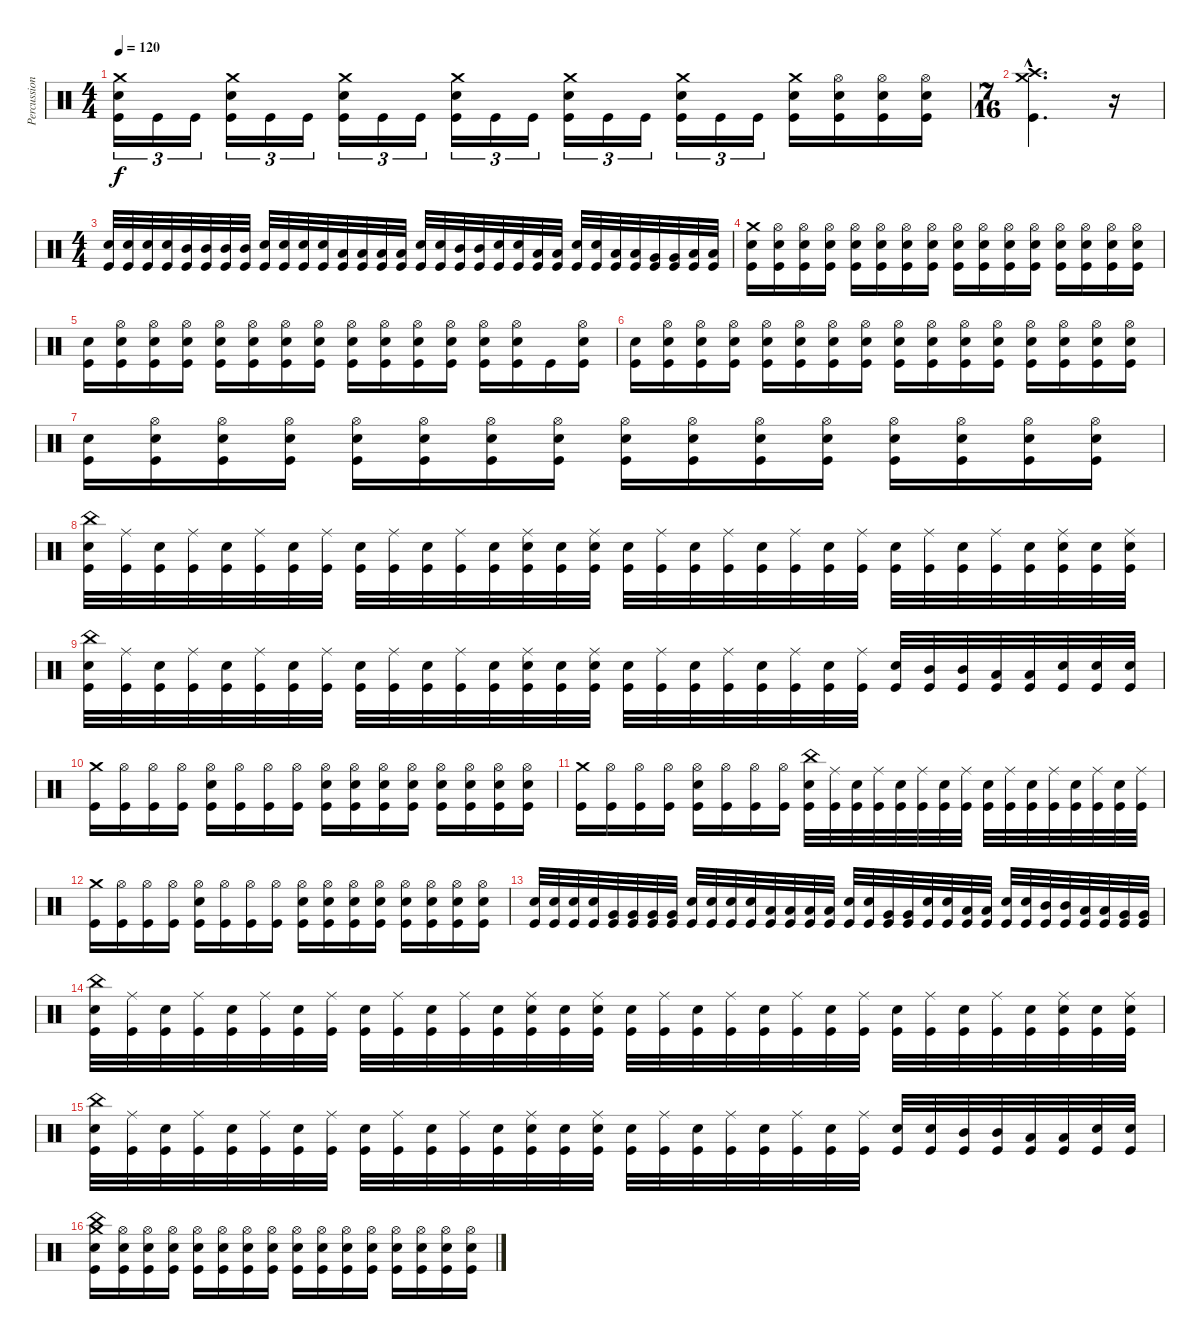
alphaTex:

\track ("Percussion" "Percussion") {instrument percussion}
\staff {score}
\articulation defaults
\ts (4 4)
\tempo 120
\clef neutral
\ks c
("Crash medium (hit)" "Electric Snare (hit)" "Kick (hit)").16{tu (3 2) dy f} "Kick (hit)".16{tu (3 2)} "Kick (hit)".16{tu (3 2)} ("Crash medium (hit)" "Electric Snare (hit)" "Kick (hit)").16{tu (3 2)} "Kick (hit)".16{tu (3 2)} "Kick (hit)".16{tu (3 2)} ("Crash medium (hit)" "Electric Snare (hit)" "Kick (hit)").16{tu (3 2)} "Kick (hit)".16{tu (3 2)} "Kick (hit)".16{tu (3 2)} ("Crash medium (hit)" "Electric Snare (hit)" "Kick (hit)").16{tu (3 2)} "Kick (hit)".16{tu (3 2)} "Kick (hit)".16{tu (3 2)} ("Crash medium (hit)" "Electric Snare (hit)" "Kick (hit)").16{tu (3 2)} "Kick (hit)".16{tu (3 2)} "Kick (hit)".16{tu (3 2)} ("Crash medium (hit)" "Electric Snare (hit)" "Kick (hit)").16{tu (3 2)} "Kick (hit)".16{tu (3 2)} "Kick (hit)".16{tu (3 2)} ("Crash medium (hit)" "Electric Snare (hit)" "Kick (hit)").16 ("Hi-Hat (open)" "Electric Snare (hit)" "Kick (hit)").16 ("Hi-Hat (open)" "Electric Snare (hit)" "Kick (hit)").16 ("Hi-Hat (open)" "Electric Snare (hit)" "Kick (hit)").16 |
\ts (7 16)
("Crash medium (hit)"{hac} "Crash high (hit)"{hac} "Kick (hit)"{hac}).4{d} r.16 |
\ts (4 4)
("Electric Snare (hit)" "Kick (hit)").32 ("Electric Snare (hit)" "Kick (hit)").32 ("Electric Snare (hit)" "Kick (hit)").32 ("Electric Snare (hit)" "Kick (hit)").32 ("Mid Tom (hit)" "Kick (hit)").32 ("Mid Tom (hit)" "Kick (hit)").32 ("Mid Tom (hit)" "Kick (hit)").32 ("Mid Tom (hit)" "Kick (hit)").32 ("Electric Snare (hit)" "Kick (hit)").32 ("Electric Snare (hit)" "Kick (hit)").32 ("Electric Snare (hit)" "Kick (hit)").32 ("Electric Snare (hit)" "Kick (hit)").32 ("Low Tom (hit)" "Kick (hit)").32 ("Low Tom (hit)" "Kick (hit)").32 ("Low Tom (hit)" "Kick (hit)").32 ("Low Tom (hit)" "Kick (hit)").32 ("Electric Snare (hit)" "Kick (hit)").32 ("Electric Snare (hit)" "Kick (hit)").32 ("Mid Tom (hit)" "Kick (hit)").32 ("Mid Tom (hit)" "Kick (hit)").32 ("Electric Snare (hit)" "Kick (hit)").32 ("Electric Snare (hit)" "Kick (hit)").32 ("Low Tom (hit)" "Kick (hit)").32 ("Low Tom (hit)" "Kick (hit)").32 ("Electric Snare (hit)" "Kick (hit)").32 ("Electric Snare (hit)" "Kick (hit)").32 ("Low Tom (hit)" "Kick (hit)").32 ("Low Tom (hit)" "Kick (hit)").32 ("Very Low Tom (hit)" "Kick (hit)").32 ("Very Low Tom (hit)" "Kick (hit)").32 ("Low Floor Tom (hit)" "Kick (hit)").32 ("Low Floor Tom (hit)" "Kick (hit)").32 |
("Crash medium (hit)" "Electric Snare (hit)" "Kick (hit)").16 ("Hi-Hat (open)" "Electric Snare (hit)" "Kick (hit)").16 ("Hi-Hat (open)" "Electric Snare (hit)" "Kick (hit)").16 ("Hi-Hat (open)" "Electric Snare (hit)" "Kick (hit)").16 ("Hi-Hat (open)" "Electric Snare (hit)" "Kick (hit)").16 ("Hi-Hat (open)" "Electric Snare (hit)" "Kick (hit)").16 ("Hi-Hat (open)" "Electric Snare (hit)" "Kick (hit)").16 ("Hi-Hat (open)" "Electric Snare (hit)" "Kick (hit)").16 ("Hi-Hat (open)" "Electric Snare (hit)" "Kick (hit)").16 ("Hi-Hat (open)" "Electric Snare (hit)" "Kick (hit)").16 ("Hi-Hat (open)" "Electric Snare (hit)" "Kick (hit)").16 ("Hi-Hat (open)" "Electric Snare (hit)" "Kick (hit)").16 ("Hi-Hat (open)" "Electric Snare (hit)" "Kick (hit)").16 ("Hi-Hat (open)" "Electric Snare (hit)" "Kick (hit)").16 ("Hi-Hat (open)" "Electric Snare (hit)" "Kick (hit)").16 ("Hi-Hat (open)" "Electric Snare (hit)" "Kick (hit)").16 |
("Electric Snare (hit)" "Kick (hit)").16 ("Hi-Hat (open)" "Electric Snare (hit)" "Kick (hit)").16 ("Hi-Hat (open)" "Electric Snare (hit)" "Kick (hit)").16 ("Hi-Hat (open)" "Electric Snare (hit)" "Kick (hit)").16 ("Hi-Hat (open)" "Electric Snare (hit)" "Kick (hit)").16 ("Hi-Hat (open)" "Electric Snare (hit)" "Kick (hit)").16 ("Hi-Hat (open)" "Electric Snare (hit)" "Kick (hit)").16 ("Hi-Hat (open)" "Electric Snare (hit)" "Kick (hit)").16 ("Hi-Hat (open)" "Electric Snare (hit)" "Kick (hit)").16 ("Hi-Hat (open)" "Electric Snare (hit)" "Kick (hit)").16 ("Hi-Hat (open)" "Electric Snare (hit)" "Kick (hit)").16 ("Hi-Hat (open)" "Electric Snare (hit)" "Kick (hit)").16 ("Hi-Hat (open)" "Electric Snare (hit)" "Kick (hit)").16 ("Hi-Hat (open)" "Electric Snare (hit)" "Kick (hit)").16 "Kick (hit)".16 ("Hi-Hat (open)" "Electric Snare (hit)" "Kick (hit)").16 |
("Electric Snare (hit)" "Kick (hit)").16 ("Hi-Hat (open)" "Electric Snare (hit)" "Kick (hit)").16 ("Hi-Hat (open)" "Electric Snare (hit)" "Kick (hit)").16 ("Hi-Hat (open)" "Electric Snare (hit)" "Kick (hit)").16 ("Hi-Hat (open)" "Electric Snare (hit)" "Kick (hit)").16 ("Hi-Hat (open)" "Electric Snare (hit)" "Kick (hit)").16 ("Hi-Hat (open)" "Electric Snare (hit)" "Kick (hit)").16 ("Hi-Hat (open)" "Electric Snare (hit)" "Kick (hit)").16 ("Hi-Hat (open)" "Electric Snare (hit)" "Kick (hit)").16 ("Hi-Hat (open)" "Electric Snare (hit)" "Kick (hit)").16 ("Hi-Hat (open)" "Electric Snare (hit)" "Kick (hit)").16 ("Hi-Hat (open)" "Electric Snare (hit)" "Kick (hit)").16 ("Hi-Hat (open)" "Electric Snare (hit)" "Kick (hit)").16 ("Hi-Hat (open)" "Electric Snare (hit)" "Kick (hit)").16 ("Hi-Hat (open)" "Electric Snare (hit)" "Kick (hit)").16 ("Hi-Hat (open)" "Electric Snare (hit)" "Kick (hit)").16 |
("Electric Snare (hit)" "Kick (hit)").16 ("Hi-Hat (open)" "Electric Snare (hit)" "Kick (hit)").16 ("Hi-Hat (open)" "Electric Snare (hit)" "Kick (hit)").16 ("Hi-Hat (open)" "Electric Snare (hit)" "Kick (hit)").16 ("Hi-Hat (open)" "Electric Snare (hit)" "Kick (hit)").16 ("Hi-Hat (open)" "Electric Snare (hit)" "Kick (hit)").16 ("Hi-Hat (open)" "Electric Snare (hit)" "Kick (hit)").16 ("Hi-Hat (open)" "Electric Snare (hit)" "Kick (hit)").16 ("Hi-Hat (open)" "Electric Snare (hit)" "Kick (hit)").16 ("Hi-Hat (open)" "Electric Snare (hit)" "Kick (hit)").16 ("Hi-Hat (open)" "Electric Snare (hit)" "Kick (hit)").16 ("Hi-Hat (open)" "Electric Snare (hit)" "Kick (hit)").16 ("Hi-Hat (open)" "Electric Snare (hit)" "Kick (hit)").16 ("Hi-Hat (open)" "Electric Snare (hit)" "Kick (hit)").16 ("Hi-Hat (open)" "Electric Snare (hit)" "Kick (hit)").16 ("Hi-Hat (open)" "Electric Snare (hit)" "Kick (hit)").16 |
("China (hit)" "Electric Snare (hit)" "Kick (hit)").32 ("Ride (middle)" "Kick (hit)").32 ("Electric Snare (hit)" "Kick (hit)").32 ("Ride (middle)" "Kick (hit)").32 ("Electric Snare (hit)" "Kick (hit)").32 ("Ride (middle)" "Kick (hit)").32 ("Electric Snare (hit)" "Kick (hit)").32 ("Ride (middle)" "Kick (hit)").32 ("Electric Snare (hit)" "Kick (hit)").32 ("Ride (middle)" "Kick (hit)").32 ("Electric Snare (hit)" "Kick (hit)").32 ("Ride (middle)" "Kick (hit)").32 ("Electric Snare (hit)" "Kick (hit)").32 ("Ride (middle)" "Electric Snare (hit)" "Kick (hit)").32 ("Electric Snare (hit)" "Kick (hit)").32 ("Ride (middle)" "Electric Snare (hit)" "Kick (hit)").32 ("Electric Snare (hit)" "Kick (hit)").32 ("Ride (middle)" "Kick (hit)").32 ("Electric Snare (hit)" "Kick (hit)").32 ("Ride (middle)" "Kick (hit)").32 ("Electric Snare (hit)" "Kick (hit)").32 ("Ride (middle)" "Kick (hit)").32 ("Electric Snare (hit)" "Kick (hit)").32 ("Ride (middle)" "Kick (hit)").32 ("Electric Snare (hit)" "Kick (hit)").32 ("Ride (middle)" "Kick (hit)").32 ("Electric Snare (hit)" "Kick (hit)").32 ("Ride (middle)" "Kick (hit)").32 ("Electric Snare (hit)" "Kick (hit)").32 ("Ride (middle)" "Electric Snare (hit)" "Kick (hit)").32 ("Electric Snare (hit)" "Kick (hit)").32 ("Ride (middle)" "Electric Snare (hit)" "Kick (hit)").32 |
("China (hit)" "Electric Snare (hit)" "Kick (hit)").32 ("Ride (middle)" "Kick (hit)").32 ("Electric Snare (hit)" "Kick (hit)").32 ("Ride (middle)" "Kick (hit)").32 ("Electric Snare (hit)" "Kick (hit)").32 ("Ride (middle)" "Kick (hit)").32 ("Electric Snare (hit)" "Kick (hit)").32 ("Ride (middle)" "Kick (hit)").32 ("Electric Snare (hit)" "Kick (hit)").32 ("Ride (middle)" "Kick (hit)").32 ("Electric Snare (hit)" "Kick (hit)").32 ("Ride (middle)" "Kick (hit)").32 ("Electric Snare (hit)" "Kick (hit)").32 ("Ride (middle)" "Electric Snare (hit)" "Kick (hit)").32 ("Electric Snare (hit)" "Kick (hit)").32 ("Ride (middle)" "Electric Snare (hit)" "Kick (hit)").32 ("Electric Snare (hit)" "Kick (hit)").32 ("Ride (middle)" "Kick (hit)").32 ("Electric Snare (hit)" "Kick (hit)").32 ("Ride (middle)" "Kick (hit)").32 ("Electric Snare (hit)" "Kick (hit)").32 ("Ride (middle)" "Kick (hit)").32 ("Electric Snare (hit)" "Kick (hit)").32 ("Ride (middle)" "Kick (hit)").32 ("Electric Snare (hit)" "Kick (hit)").32 ("Mid Tom (hit)" "Kick (hit)").32 ("Mid Tom (hit)" "Kick (hit)").32 ("Low Tom (hit)" "Kick (hit)").32 ("Low Tom (hit)" "Kick (hit)").32 ("Electric Snare (hit)" "Kick (hit)").32 ("Electric Snare (hit)" "Kick (hit)").32 ("Electric Snare (hit)" "Kick (hit)").32 |
("Crash medium (hit)" "Kick (hit)").16 ("Hi-Hat (open)" "Kick (hit)").16 ("Hi-Hat (open)" "Kick (hit)").16 ("Hi-Hat (open)" "Kick (hit)").16 ("Hi-Hat (open)" "Electric Snare (hit)" "Kick (hit)").16 ("Hi-Hat (open)" "Kick (hit)").16 ("Hi-Hat (open)" "Kick (hit)").16 ("Hi-Hat (open)" "Kick (hit)").16 ("Hi-Hat (open)" "Electric Snare (hit)" "Kick (hit)").16 ("Hi-Hat (open)" "Electric Snare (hit)" "Kick (hit)").16 ("Hi-Hat (open)" "Electric Snare (hit)" "Kick (hit)").16 ("Hi-Hat (open)" "Electric Snare (hit)" "Kick (hit)").16 ("Hi-Hat (open)" "Electric Snare (hit)" "Kick (hit)").16 ("Hi-Hat (open)" "Electric Snare (hit)" "Kick (hit)").16 ("Hi-Hat (open)" "Electric Snare (hit)" "Kick (hit)").16 ("Hi-Hat (open)" "Electric Snare (hit)" "Kick (hit)").16 |
("Crash medium (hit)" "Kick (hit)").16 ("Hi-Hat (open)" "Kick (hit)").16 ("Hi-Hat (open)" "Kick (hit)").16 ("Hi-Hat (open)" "Kick (hit)").16 ("Hi-Hat (open)" "Electric Snare (hit)" "Kick (hit)").16 ("Hi-Hat (open)" "Kick (hit)").16 ("Hi-Hat (open)" "Kick (hit)").16 ("Hi-Hat (open)" "Kick (hit)").16 ("China (hit)" "Electric Snare (hit)" "Kick (hit)").32 ("Ride (middle)" "Kick (hit)").32 ("Electric Snare (hit)" "Kick (hit)").32 ("Ride (middle)" "Kick (hit)").32 ("Electric Snare (hit)" "Kick (hit)").32 ("Ride (middle)" "Kick (hit)").32 ("Electric Snare (hit)" "Kick (hit)").32 ("Ride (middle)" "Kick (hit)").32 ("Electric Snare (hit)" "Kick (hit)").32 ("Ride (middle)" "Kick (hit)").32 ("Electric Snare (hit)" "Kick (hit)").32 ("Ride (middle)" "Kick (hit)").32 ("Electric Snare (hit)" "Kick (hit)").32 ("Ride (middle)" "Kick (hit)").32 ("Electric Snare (hit)" "Kick (hit)").32 ("Ride (middle)" "Kick (hit)").32 |
("Crash medium (hit)" "Kick (hit)").16 ("Hi-Hat (open)" "Kick (hit)").16 ("Hi-Hat (open)" "Kick (hit)").16 ("Hi-Hat (open)" "Kick (hit)").16 ("Hi-Hat (open)" "Electric Snare (hit)" "Kick (hit)").16 ("Hi-Hat (open)" "Kick (hit)").16 ("Hi-Hat (open)" "Kick (hit)").16 ("Hi-Hat (open)" "Kick (hit)").16 ("Hi-Hat (open)" "Electric Snare (hit)" "Kick (hit)").16 ("Hi-Hat (open)" "Electric Snare (hit)" "Kick (hit)").16 ("Hi-Hat (open)" "Electric Snare (hit)" "Kick (hit)").16 ("Hi-Hat (open)" "Electric Snare (hit)" "Kick (hit)").16 ("Hi-Hat (open)" "Electric Snare (hit)" "Kick (hit)").16 ("Hi-Hat (open)" "Electric Snare (hit)" "Kick (hit)").16 ("Hi-Hat (open)" "Electric Snare (hit)" "Kick (hit)").16 ("Hi-Hat (open)" "Electric Snare (hit)" "Kick (hit)").16 |
("Electric Snare (hit)" "Kick (hit)").32 ("Electric Snare (hit)" "Kick (hit)").32 ("Electric Snare (hit)" "Kick (hit)").32 ("Electric Snare (hit)" "Kick (hit)").32 ("Very Low Tom (hit)" "Kick (hit)").32 ("Very Low Tom (hit)" "Kick (hit)").32 ("Very Low Tom (hit)" "Kick (hit)").32 ("Very Low Tom (hit)" "Kick (hit)").32 ("Electric Snare (hit)" "Kick (hit)").32 ("Electric Snare (hit)" "Kick (hit)").32 ("Electric Snare (hit)" "Kick (hit)").32 ("Electric Snare (hit)" "Kick (hit)").32 ("Low Tom (hit)" "Kick (hit)").32 ("Low Tom (hit)" "Kick (hit)").32 ("Low Tom (hit)" "Kick (hit)").32 ("Low Tom (hit)" "Kick (hit)").32 ("Electric Snare (hit)" "Kick (hit)").32 ("Electric Snare (hit)" "Kick (hit)").32 ("Very Low Tom (hit)" "Kick (hit)").32 ("Very Low Tom (hit)" "Kick (hit)").32 ("Electric Snare (hit)" "Kick (hit)").32 ("Electric Snare (hit)" "Kick (hit)").32 ("Low Floor Tom (hit)" "Kick (hit)").32 ("Low Floor Tom (hit)" "Kick (hit)").32 ("Electric Snare (hit)" "Kick (hit)").32 ("Electric Snare (hit)" "Kick (hit)").32 ("Mid Tom (hit)" "Kick (hit)").32 ("Mid Tom (hit)" "Kick (hit)").32 ("Low Tom (hit)" "Kick (hit)").32 ("Low Tom (hit)" "Kick (hit)").32 ("Very Low Tom (hit)" "Kick (hit)").32 ("Very Low Tom (hit)" "Kick (hit)").32 |
("China (hit)" "Electric Snare (hit)" "Kick (hit)").32 ("Ride (middle)" "Kick (hit)").32 ("Electric Snare (hit)" "Kick (hit)").32 ("Ride (middle)" "Kick (hit)").32 ("Electric Snare (hit)" "Kick (hit)").32 ("Ride (middle)" "Kick (hit)").32 ("Electric Snare (hit)" "Kick (hit)").32 ("Ride (middle)" "Kick (hit)").32 ("Electric Snare (hit)" "Kick (hit)").32 ("Ride (middle)" "Kick (hit)").32 ("Electric Snare (hit)" "Kick (hit)").32 ("Ride (middle)" "Kick (hit)").32 ("Electric Snare (hit)" "Kick (hit)").32 ("Ride (middle)" "Electric Snare (hit)" "Kick (hit)").32 ("Electric Snare (hit)" "Kick (hit)").32 ("Ride (middle)" "Electric Snare (hit)" "Kick (hit)").32 ("Electric Snare (hit)" "Kick (hit)").32 ("Ride (middle)" "Kick (hit)").32 ("Electric Snare (hit)" "Kick (hit)").32 ("Ride (middle)" "Kick (hit)").32 ("Electric Snare (hit)" "Kick (hit)").32 ("Ride (middle)" "Kick (hit)").32 ("Electric Snare (hit)" "Kick (hit)").32 ("Ride (middle)" "Kick (hit)").32 ("Electric Snare (hit)" "Kick (hit)").32 ("Ride (middle)" "Kick (hit)").32 ("Electric Snare (hit)" "Kick (hit)").32 ("Ride (middle)" "Kick (hit)").32 ("Electric Snare (hit)" "Kick (hit)").32 ("Ride (middle)" "Electric Snare (hit)" "Kick (hit)").32 ("Electric Snare (hit)" "Kick (hit)").32 ("Ride (middle)" "Electric Snare (hit)" "Kick (hit)").32 |
("China (hit)" "Electric Snare (hit)" "Kick (hit)").32 ("Ride (middle)" "Kick (hit)").32 ("Electric Snare (hit)" "Kick (hit)").32 ("Ride (middle)" "Kick (hit)").32 ("Electric Snare (hit)" "Kick (hit)").32 ("Ride (middle)" "Kick (hit)").32 ("Electric Snare (hit)" "Kick (hit)").32 ("Ride (middle)" "Kick (hit)").32 ("Electric Snare (hit)" "Kick (hit)").32 ("Ride (middle)" "Kick (hit)").32 ("Electric Snare (hit)" "Kick (hit)").32 ("Ride (middle)" "Kick (hit)").32 ("Electric Snare (hit)" "Kick (hit)").32 ("Ride (middle)" "Electric Snare (hit)" "Kick (hit)").32 ("Electric Snare (hit)" "Kick (hit)").32 ("Ride (middle)" "Electric Snare (hit)" "Kick (hit)").32 ("Electric Snare (hit)" "Kick (hit)").32 ("Ride (middle)" "Kick (hit)").32 ("Electric Snare (hit)" "Kick (hit)").32 ("Ride (middle)" "Kick (hit)").32 ("Electric Snare (hit)" "Kick (hit)").32 ("Ride (middle)" "Kick (hit)").32 ("Electric Snare (hit)" "Kick (hit)").32 ("Ride (middle)" "Kick (hit)").32 ("Electric Snare (hit)" "Kick (hit)").32 ("Electric Snare (hit)" "Kick (hit)").32 ("Mid Tom (hit)" "Kick (hit)").32 ("Mid Tom (hit)" "Kick (hit)").32 ("Low Tom (hit)" "Kick (hit)").32 ("Low Tom (hit)" "Kick (hit)").32 ("Electric Snare (hit)" "Kick (hit)").32 ("Electric Snare (hit)" "Kick (hit)").32 |
("Crash medium (hit)" "China (hit)" "Electric Snare (hit)" "Kick (hit)").16 ("Hi-Hat (open)" "Electric Snare (hit)" "Kick (hit)").16 ("Hi-Hat (open)" "Electric Snare (hit)" "Kick (hit)").16 ("Hi-Hat (open)" "Electric Snare (hit)" "Kick (hit)").16 ("Hi-Hat (open)" "Electric Snare (hit)" "Kick (hit)").16 ("Hi-Hat (open)" "Electric Snare (hit)" "Kick (hit)").16 ("Hi-Hat (open)" "Electric Snare (hit)" "Kick (hit)").16 ("Hi-Hat (open)" "Electric Snare (hit)" "Kick (hit)").16 ("Hi-Hat (open)" "Electric Snare (hit)" "Kick (hit)").16 ("Hi-Hat (open)" "Electric Snare (hit)" "Kick (hit)").16 ("Hi-Hat (open)" "Electric Snare (hit)" "Kick (hit)").16 ("Hi-Hat (open)" "Electric Snare (hit)" "Kick (hit)").16 ("Hi-Hat (open)" "Electric Snare (hit)" "Kick (hit)").16 ("Hi-Hat (open)" "Electric Snare (hit)" "Kick (hit)").16 ("Hi-Hat (open)" "Electric Snare (hit)" "Kick (hit)").16 ("Hi-Hat (open)" "Electric Snare (hit)" "Kick (hit)").16
